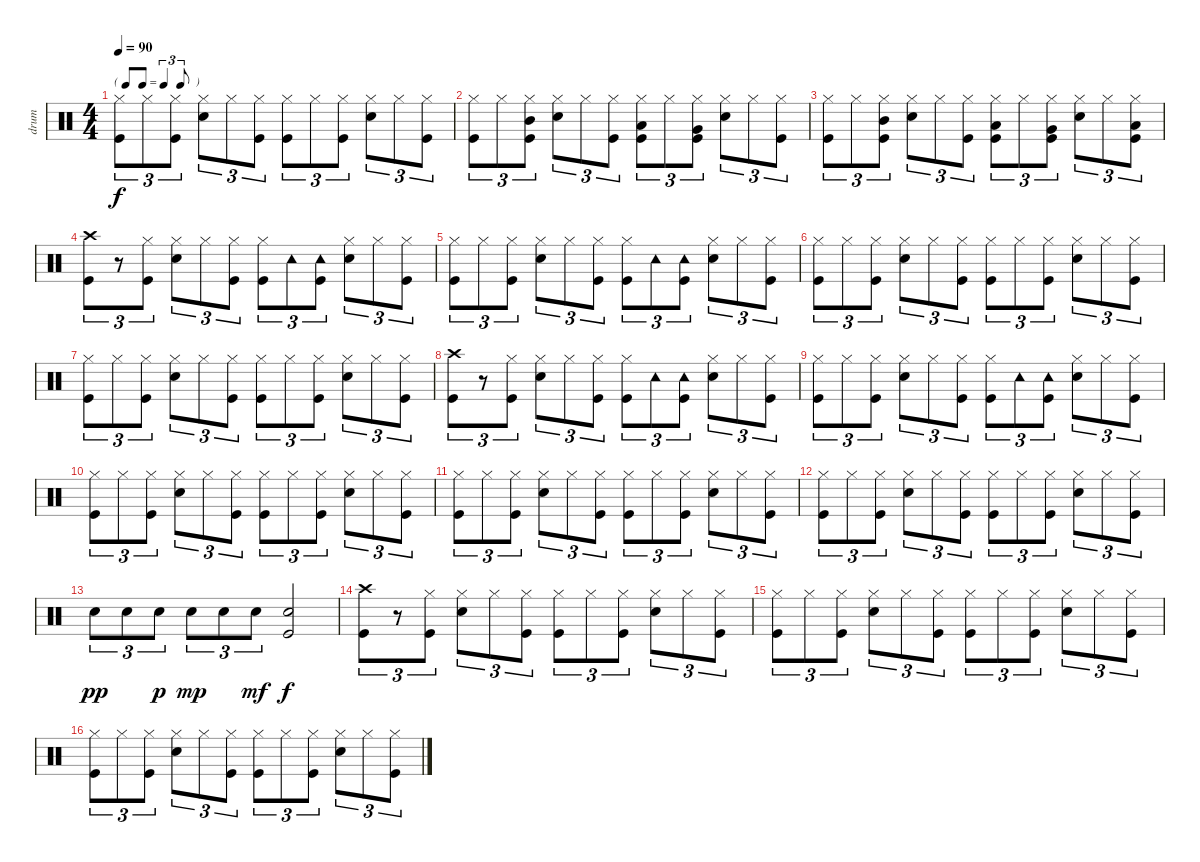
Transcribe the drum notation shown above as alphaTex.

\track ("drum" "drum") {instrument percussion}
\staff {score}
\articulation defaults
\ts (4 4)
\tf triplet8th
\tempo 90
\clef neutral
\ks c
("Hi-Hat (closed)" "Kick (hit)").8{tu (3 2) dy f} "Hi-Hat (closed)".8{tu (3 2)} ("Hi-Hat (closed)" "Kick (hit)").8{tu (3 2)} ("Hi-Hat (closed)" "Snare (hit) 2").8{tu (3 2)} "Hi-Hat (closed)".8{tu (3 2)} ("Hi-Hat (closed)" "Kick (hit)").8{tu (3 2)} ("Hi-Hat (closed)" "Kick (hit)").8{tu (3 2)} "Hi-Hat (closed)".8{tu (3 2)} ("Hi-Hat (closed)" "Kick (hit)").8{tu (3 2)} ("Hi-Hat (closed)" "Snare (hit) 2").8{tu (3 2)} "Hi-Hat (closed)".8{tu (3 2)} ("Hi-Hat (closed)" "Kick (hit)").8{tu (3 2)} |
("Hi-Hat (closed)" "Kick (hit)").8{tu (3 2)} "Hi-Hat (closed)".8{tu (3 2)} ("Hi-Hat (closed)" "Mid Tom (hit)" "Kick (hit)").8{tu (3 2)} ("Hi-Hat (closed)" "Snare (hit) 2").8{tu (3 2)} "Hi-Hat (closed)".8{tu (3 2)} ("Hi-Hat (closed)" "Kick (hit)").8{tu (3 2)} ("Hi-Hat (closed)" "Low Tom (hit)" "Kick (hit)").8{tu (3 2)} "Hi-Hat (closed)".8{tu (3 2)} ("Hi-Hat (closed)" "Very Low Tom (hit)" "Kick (hit)").8{tu (3 2)} ("Hi-Hat (closed)" "Snare (hit) 2").8{tu (3 2)} "Hi-Hat (closed)".8{tu (3 2)} ("Hi-Hat (closed)" "Kick (hit)").8{tu (3 2)} |
("Hi-Hat (closed)" "Kick (hit)").8{tu (3 2)} "Hi-Hat (closed)".8{tu (3 2)} ("Hi-Hat (closed)" "Mid Tom (hit)" "Kick (hit)").8{tu (3 2)} ("Hi-Hat (closed)" "Snare (hit) 2").8{tu (3 2)} "Hi-Hat (closed)".8{tu (3 2)} ("Hi-Hat (closed)" "Kick (hit)").8{tu (3 2)} ("Hi-Hat (closed)" "Low Tom (hit)" "Kick (hit)").8{tu (3 2)} "Hi-Hat (closed)".8{tu (3 2)} ("Hi-Hat (closed)" "Very Low Tom (hit)" "Kick (hit)").8{tu (3 2)} ("Hi-Hat (closed)" "Snare (hit) 2").8{tu (3 2)} "Hi-Hat (closed)".8{tu (3 2)} ("Hi-Hat (closed)" "Low Floor Tom (hit)" "Kick (hit)").8{tu (3 2)} |
("Crash high (hit)" "Kick (hit)").8{tu (3 2)} r.8{tu (3 2)} ("Hi-Hat (closed)" "Kick (hit)").8{tu (3 2)} ("Hi-Hat (closed)" "Snare (hit) 2").8{tu (3 2)} "Hi-Hat (closed)".8{tu (3 2)} ("Hi-Hat (closed)" "Kick (hit)").8{tu (3 2)} ("Hi-Hat (closed)" "Kick (hit)").8{tu (3 2)} "Tambourine (hit)".8{tu (3 2)} ("Tambourine (hit)" "Kick (hit)").8{tu (3 2)} ("Hi-Hat (closed)" "Snare (hit) 2").8{tu (3 2)} "Hi-Hat (closed)".8{tu (3 2)} ("Hi-Hat (closed)" "Kick (hit)").8{tu (3 2)} |
("Hi-Hat (closed)" "Kick (hit)").8{tu (3 2)} "Hi-Hat (closed)".8{tu (3 2)} ("Hi-Hat (closed)" "Kick (hit)").8{tu (3 2)} ("Hi-Hat (closed)" "Snare (hit) 2").8{tu (3 2)} "Hi-Hat (closed)".8{tu (3 2)} ("Hi-Hat (closed)" "Kick (hit)").8{tu (3 2)} ("Hi-Hat (closed)" "Kick (hit)").8{tu (3 2)} "Tambourine (hit)".8{tu (3 2)} ("Tambourine (hit)" "Kick (hit)").8{tu (3 2)} ("Hi-Hat (closed)" "Snare (hit) 2").8{tu (3 2)} "Hi-Hat (closed)".8{tu (3 2)} ("Hi-Hat (closed)" "Kick (hit)").8{tu (3 2)} |
("Hi-Hat (closed)" "Kick (hit)").8{tu (3 2)} "Hi-Hat (closed)".8{tu (3 2)} ("Hi-Hat (closed)" "Kick (hit)").8{tu (3 2)} ("Hi-Hat (closed)" "Snare (hit) 2").8{tu (3 2)} "Hi-Hat (closed)".8{tu (3 2)} ("Hi-Hat (closed)" "Kick (hit)").8{tu (3 2)} ("Hi-Hat (closed)" "Kick (hit)").8{tu (3 2)} "Hi-Hat (closed)".8{tu (3 2)} ("Hi-Hat (closed)" "Kick (hit)").8{tu (3 2)} ("Hi-Hat (closed)" "Snare (hit) 2").8{tu (3 2)} "Hi-Hat (closed)".8{tu (3 2)} ("Hi-Hat (closed)" "Kick (hit)").8{tu (3 2)} |
("Hi-Hat (closed)" "Kick (hit)").8{tu (3 2)} "Hi-Hat (closed)".8{tu (3 2)} ("Hi-Hat (closed)" "Kick (hit)").8{tu (3 2)} ("Hi-Hat (closed)" "Snare (hit) 2").8{tu (3 2)} "Hi-Hat (closed)".8{tu (3 2)} ("Hi-Hat (closed)" "Kick (hit)").8{tu (3 2)} ("Hi-Hat (closed)" "Kick (hit)").8{tu (3 2)} "Hi-Hat (closed)".8{tu (3 2)} ("Hi-Hat (closed)" "Kick (hit)").8{tu (3 2)} ("Hi-Hat (closed)" "Snare (hit) 2").8{tu (3 2)} "Hi-Hat (closed)".8{tu (3 2)} ("Hi-Hat (closed)" "Kick (hit)").8{tu (3 2)} |
("Crash high (hit)" "Kick (hit)").8{tu (3 2)} r.8{tu (3 2)} ("Hi-Hat (closed)" "Kick (hit)").8{tu (3 2)} ("Hi-Hat (closed)" "Snare (hit) 2").8{tu (3 2)} "Hi-Hat (closed)".8{tu (3 2)} ("Hi-Hat (closed)" "Kick (hit)").8{tu (3 2)} ("Hi-Hat (closed)" "Kick (hit)").8{tu (3 2)} "Tambourine (hit)".8{tu (3 2)} ("Tambourine (hit)" "Kick (hit)").8{tu (3 2)} ("Hi-Hat (closed)" "Snare (hit) 2").8{tu (3 2)} "Hi-Hat (closed)".8{tu (3 2)} ("Hi-Hat (closed)" "Kick (hit)").8{tu (3 2)} |
("Hi-Hat (closed)" "Kick (hit)").8{tu (3 2)} "Hi-Hat (closed)".8{tu (3 2)} ("Hi-Hat (closed)" "Kick (hit)").8{tu (3 2)} ("Hi-Hat (closed)" "Snare (hit) 2").8{tu (3 2)} "Hi-Hat (closed)".8{tu (3 2)} ("Hi-Hat (closed)" "Kick (hit)").8{tu (3 2)} ("Hi-Hat (closed)" "Kick (hit)").8{tu (3 2)} "Tambourine (hit)".8{tu (3 2)} ("Tambourine (hit)" "Kick (hit)").8{tu (3 2)} ("Hi-Hat (closed)" "Snare (hit) 2").8{tu (3 2)} "Hi-Hat (closed)".8{tu (3 2)} ("Hi-Hat (closed)" "Kick (hit)").8{tu (3 2)} |
("Hi-Hat (closed)" "Kick (hit)").8{tu (3 2)} "Hi-Hat (closed)".8{tu (3 2)} ("Hi-Hat (closed)" "Kick (hit)").8{tu (3 2)} ("Hi-Hat (closed)" "Snare (hit) 2").8{tu (3 2)} "Hi-Hat (closed)".8{tu (3 2)} ("Hi-Hat (closed)" "Kick (hit)").8{tu (3 2)} ("Hi-Hat (closed)" "Kick (hit)").8{tu (3 2)} "Hi-Hat (closed)".8{tu (3 2)} ("Hi-Hat (closed)" "Kick (hit)").8{tu (3 2)} ("Hi-Hat (closed)" "Snare (hit) 2").8{tu (3 2)} "Hi-Hat (closed)".8{tu (3 2)} ("Hi-Hat (closed)" "Kick (hit)").8{tu (3 2)} |
("Hi-Hat (closed)" "Kick (hit)").8{tu (3 2)} "Hi-Hat (closed)".8{tu (3 2)} ("Hi-Hat (closed)" "Kick (hit)").8{tu (3 2)} ("Hi-Hat (closed)" "Snare (hit) 2").8{tu (3 2)} "Hi-Hat (closed)".8{tu (3 2)} ("Hi-Hat (closed)" "Kick (hit)").8{tu (3 2)} ("Hi-Hat (closed)" "Kick (hit)").8{tu (3 2)} "Hi-Hat (closed)".8{tu (3 2)} ("Hi-Hat (closed)" "Kick (hit)").8{tu (3 2)} ("Hi-Hat (closed)" "Snare (hit) 2").8{tu (3 2)} "Hi-Hat (closed)".8{tu (3 2)} ("Hi-Hat (closed)" "Kick (hit)").8{tu (3 2)} |
("Hi-Hat (closed)" "Kick (hit)").8{tu (3 2)} "Hi-Hat (closed)".8{tu (3 2)} ("Hi-Hat (closed)" "Kick (hit)").8{tu (3 2)} ("Hi-Hat (closed)" "Snare (hit) 2").8{tu (3 2)} "Hi-Hat (closed)".8{tu (3 2)} ("Hi-Hat (closed)" "Kick (hit)").8{tu (3 2)} ("Hi-Hat (closed)" "Kick (hit)").8{tu (3 2)} "Hi-Hat (closed)".8{tu (3 2)} ("Hi-Hat (closed)" "Kick (hit)").8{tu (3 2)} ("Hi-Hat (closed)" "Snare (hit) 2").8{tu (3 2)} "Hi-Hat (closed)".8{tu (3 2)} ("Hi-Hat (closed)" "Kick (hit)").8{tu (3 2)} |
"Snare (hit) 2".8{tu (3 2) dy pp} "Snare (hit) 2".8{tu (3 2)} "Snare (hit) 2".8{tu (3 2) dy p} "Snare (hit) 2".8{tu (3 2) dy mp} "Snare (hit) 2".8{tu (3 2)} "Snare (hit) 2".8{tu (3 2) dy mf} ("Kick (hit)" "Snare (hit) 2").2{dy f} |
("Crash high (hit)" "Kick (hit)").8{tu (3 2)} r.8{tu (3 2)} ("Hi-Hat (closed)" "Kick (hit)").8{tu (3 2)} ("Hi-Hat (closed)" "Snare (hit) 2").8{tu (3 2)} "Hi-Hat (closed)".8{tu (3 2)} ("Hi-Hat (closed)" "Kick (hit)").8{tu (3 2)} ("Hi-Hat (closed)" "Kick (hit)").8{tu (3 2)} "Hi-Hat (closed)".8{tu (3 2)} ("Hi-Hat (closed)" "Kick (hit)").8{tu (3 2)} ("Hi-Hat (closed)" "Snare (hit) 2").8{tu (3 2)} "Hi-Hat (closed)".8{tu (3 2)} ("Hi-Hat (closed)" "Kick (hit)").8{tu (3 2)} |
("Hi-Hat (closed)" "Kick (hit)").8{tu (3 2)} "Hi-Hat (closed)".8{tu (3 2)} ("Hi-Hat (closed)" "Kick (hit)").8{tu (3 2)} ("Hi-Hat (closed)" "Snare (hit) 2").8{tu (3 2)} "Hi-Hat (closed)".8{tu (3 2)} ("Hi-Hat (closed)" "Kick (hit)").8{tu (3 2)} ("Hi-Hat (closed)" "Kick (hit)").8{tu (3 2)} "Hi-Hat (closed)".8{tu (3 2)} ("Hi-Hat (closed)" "Kick (hit)").8{tu (3 2)} ("Hi-Hat (closed)" "Snare (hit) 2").8{tu (3 2)} "Hi-Hat (closed)".8{tu (3 2)} ("Hi-Hat (closed)" "Kick (hit)").8{tu (3 2)} |
("Hi-Hat (closed)" "Kick (hit)").8{tu (3 2)} "Hi-Hat (closed)".8{tu (3 2)} ("Hi-Hat (closed)" "Kick (hit)").8{tu (3 2)} ("Hi-Hat (closed)" "Snare (hit) 2").8{tu (3 2)} "Hi-Hat (closed)".8{tu (3 2)} ("Hi-Hat (closed)" "Kick (hit)").8{tu (3 2)} ("Hi-Hat (closed)" "Kick (hit)").8{tu (3 2)} "Hi-Hat (closed)".8{tu (3 2)} ("Hi-Hat (closed)" "Kick (hit)").8{tu (3 2)} ("Hi-Hat (closed)" "Snare (hit) 2").8{tu (3 2)} "Hi-Hat (closed)".8{tu (3 2)} ("Hi-Hat (closed)" "Kick (hit)").8{tu (3 2)}
